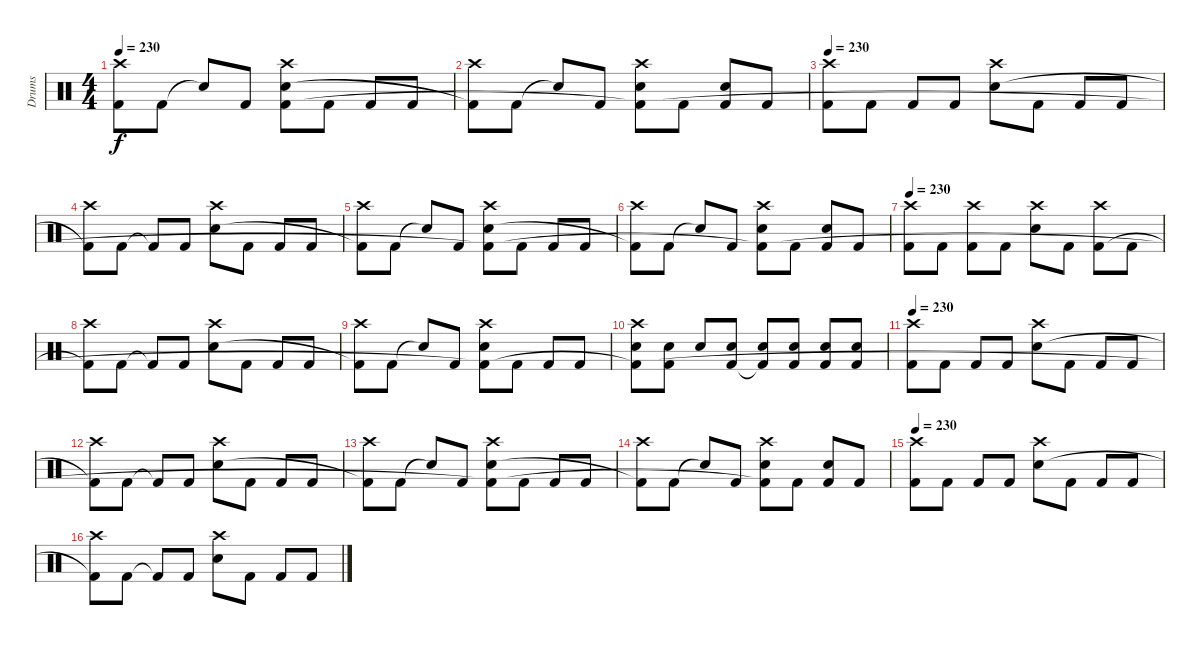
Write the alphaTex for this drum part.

\track ("Drums" "Drums") {instrument percussion}
\staff {score}
\articulation defaults
\ts (4 4)
\tempo 230
\clef neutral
\ks c
("Crash high (hit)" "Kick (hit) 2"{t}).8{dy f} "Kick (hit) 2".8 "Snare (hit)"{t}.8 "Kick (hit) 2".8 ("Crash high (hit)" "Electric Snare (hit)" "Kick (hit) 2"{t}).8 "Kick (hit) 2".8 "Kick (hit) 2".8 "Kick (hit) 2".8 |
("Crash high (hit)" "Kick (hit) 2"{t}).8 "Kick (hit) 2".8 "Snare (hit)"{t}.8 "Kick (hit) 2".8 ("Crash high (hit)" "Electric Snare (hit)" "Kick (hit) 2"{t}).8 "Kick (hit) 2".8 ("Electric Snare (hit)" "Kick (hit) 2").8 "Kick (hit) 2".8 |
\tempo 230
("Crash high (hit)" "Kick (hit) 2").8 "Kick (hit) 2".8 "Kick (hit) 2".8 "Kick (hit) 2".8 ("Crash high (hit)" "Electric Snare (hit)").8 "Kick (hit) 2".8 "Kick (hit) 2".8 "Kick (hit) 2".8 |
("Crash high (hit)" "Kick (hit) 2"{t}).8 "Kick (hit) 2".8 "Kick (hit) 2"{t}.8 "Kick (hit) 2".8 ("Crash high (hit)" "Electric Snare (hit)").8 "Kick (hit) 2".8 "Kick (hit) 2".8 "Kick (hit) 2".8 |
("Crash high (hit)" "Kick (hit) 2"{t}).8 "Kick (hit) 2".8 "Snare (hit)"{t}.8 "Kick (hit) 2".8 ("Crash high (hit)" "Electric Snare (hit)" "Kick (hit) 2"{t}).8 "Kick (hit) 2".8 "Kick (hit) 2".8 "Kick (hit) 2".8 |
("Crash high (hit)" "Kick (hit) 2"{t}).8 "Kick (hit) 2".8 "Snare (hit)"{t}.8 "Kick (hit) 2".8 ("Crash high (hit)" "Electric Snare (hit)" "Kick (hit) 2"{t}).8 "Kick (hit) 2".8 ("Electric Snare (hit)" "Kick (hit) 2").8 "Kick (hit) 2".8 |
\tempo 230
("Crash high (hit)" "Kick (hit) 2").8 "Kick (hit) 2".8 ("Crash high (hit)" "Kick (hit) 2").8 "Kick (hit) 2".8 ("Crash high (hit)" "Electric Snare (hit)").8 "Kick (hit) 2".8 ("Crash high (hit)" "Kick (hit) 2").8 "Kick (hit) 2".8 |
("Crash high (hit)" "Kick (hit) 2"{t}).8 "Kick (hit) 2".8 "Kick (hit) 2"{t}.8 "Kick (hit) 2".8 ("Crash high (hit)" "Electric Snare (hit)").8 "Kick (hit) 2".8 "Kick (hit) 2".8 "Kick (hit) 2".8 |
("Crash high (hit)" "Kick (hit) 2"{t}).8 "Kick (hit) 2".8 "Snare (hit)"{t}.8 "Kick (hit) 2".8 ("Crash high (hit)" "Electric Snare (hit)" "Kick (hit) 2"{t}).8 "Kick (hit) 2".8 "Kick (hit) 2".8 "Kick (hit) 2".8 |
("Crash high (hit)" "Electric Snare (hit)" "Kick (hit) 2"{t}).8 ("Electric Snare (hit)" "Kick (hit) 2").8 "Electric Snare (hit)".8 ("Electric Snare (hit)" "Kick (hit) 2").8 ("Electric Snare (hit)" "Kick (hit) 2"{t}).8 ("Electric Snare (hit)" "Kick (hit) 2").8 ("Electric Snare (hit)" "Kick (hit) 2").8 ("Electric Snare (hit)" "Kick (hit) 2").8 |
\tempo 230
("Crash high (hit)" "Kick (hit) 2").8 "Kick (hit) 2".8 "Kick (hit) 2".8 "Kick (hit) 2".8 ("Crash high (hit)" "Electric Snare (hit)").8 "Kick (hit) 2".8 "Kick (hit) 2".8 "Kick (hit) 2".8 |
("Crash high (hit)" "Kick (hit) 2"{t}).8 "Kick (hit) 2".8 "Kick (hit) 2"{t}.8 "Kick (hit) 2".8 ("Crash high (hit)" "Electric Snare (hit)").8 "Kick (hit) 2".8 "Kick (hit) 2".8 "Kick (hit) 2".8 |
("Crash high (hit)" "Kick (hit) 2"{t}).8 "Kick (hit) 2".8 "Snare (hit)"{t}.8 "Kick (hit) 2".8 ("Crash high (hit)" "Electric Snare (hit)" "Kick (hit) 2"{t}).8 "Kick (hit) 2".8 "Kick (hit) 2".8 "Kick (hit) 2".8 |
("Crash high (hit)" "Kick (hit) 2"{t}).8 "Kick (hit) 2".8 "Snare (hit)"{t}.8 "Kick (hit) 2".8 ("Crash high (hit)" "Electric Snare (hit)" "Kick (hit) 2"{t}).8 "Kick (hit) 2".8 ("Electric Snare (hit)" "Kick (hit) 2").8 "Kick (hit) 2".8 |
\tempo 230
("Crash high (hit)" "Kick (hit) 2").8 "Kick (hit) 2".8 "Kick (hit) 2".8 "Kick (hit) 2".8 ("Crash high (hit)" "Electric Snare (hit)").8 "Kick (hit) 2".8 "Kick (hit) 2".8 "Kick (hit) 2".8 |
("Crash high (hit)" "Kick (hit) 2"{t}).8 "Kick (hit) 2".8 "Kick (hit) 2"{t}.8 "Kick (hit) 2".8 ("Crash high (hit)" "Electric Snare (hit)").8 "Kick (hit) 2".8 "Kick (hit) 2".8 "Kick (hit) 2".8
